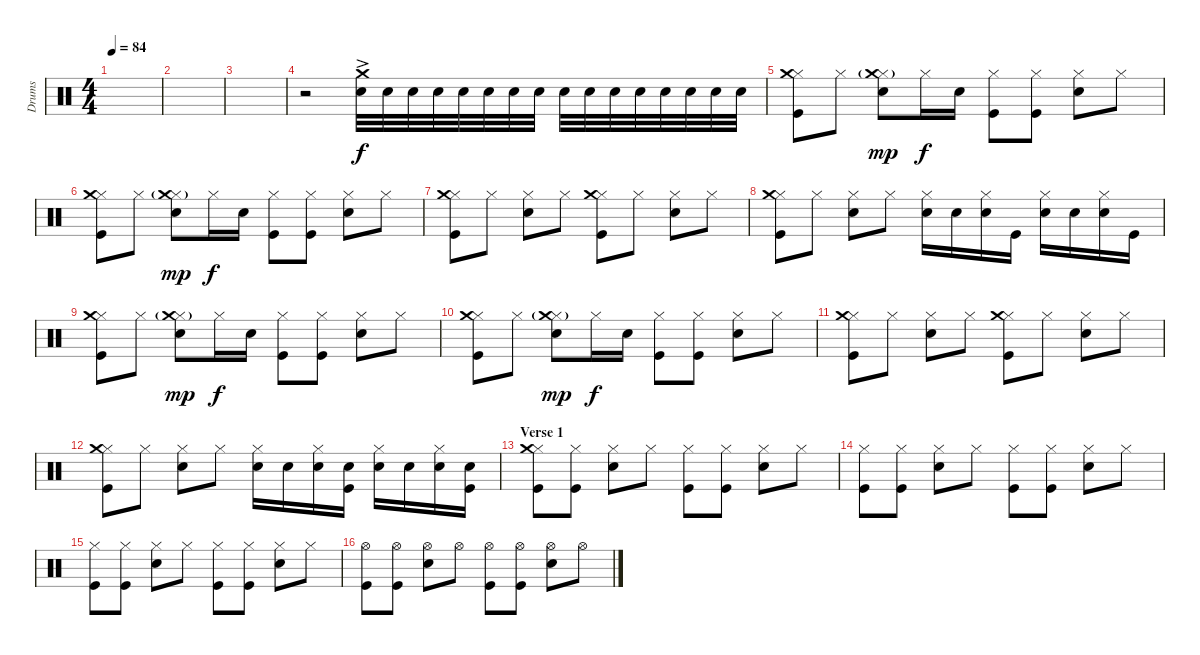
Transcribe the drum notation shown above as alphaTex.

\track ("Drums" "Drums") {instrument percussion}
\staff {score}
\articulation defaults
\ts (4 4)
\tempo 84
\clef neutral
\ks c
|
|
|
r.2 ("Crash medium (hit)"{ac} "Snare (hit) 2").32 "Snare (hit) 2".32{dy f} "Snare (hit) 2".32 "Snare (hit) 2".32 "Snare (hit) 2".32 "Snare (hit) 2".32 "Snare (hit) 2".32 "Snare (hit) 2".32 "Snare (hit) 2".32 "Snare (hit) 2".32 "Snare (hit) 2".32 "Snare (hit) 2".32 "Snare (hit) 2".32 "Snare (hit) 2".32 "Snare (hit) 2".32 "Snare (hit) 2".32 |
("Hi-Hat (closed)" "Crash medium (hit)" "Kick (hit)").8 "Hi-Hat (closed)".8 ("Hi-Hat (closed)" "Crash medium (hit)"{g} "Snare (hit) 2").8{dy mp} "Hi-Hat (closed)".16{dy f} "Snare (hit) 2".16 ("Hi-Hat (closed)" "Kick (hit)").8 ("Hi-Hat (closed)" "Kick (hit)").8 ("Hi-Hat (closed)" "Snare (hit) 2").8 "Hi-Hat (closed)".8 |
("Hi-Hat (closed)" "Crash medium (hit)" "Kick (hit)").8 "Hi-Hat (closed)".8 ("Hi-Hat (closed)" "Crash medium (hit)"{g} "Snare (hit) 2").8{dy mp} "Hi-Hat (closed)".16{dy f} "Snare (hit) 2".16 ("Hi-Hat (closed)" "Kick (hit)").8 ("Hi-Hat (closed)" "Kick (hit)").8 ("Hi-Hat (closed)" "Snare (hit) 2").8 "Hi-Hat (closed)".8 |
("Hi-Hat (closed)" "Crash medium (hit)" "Kick (hit)").8 "Hi-Hat (closed)".8 ("Hi-Hat (closed)" "Snare (hit) 2").8 "Hi-Hat (closed)".8 ("Hi-Hat (closed)" "Crash medium (hit)" "Kick (hit)").8 "Hi-Hat (closed)".8 ("Hi-Hat (closed)" "Snare (hit) 2").8 "Hi-Hat (closed)".8 |
("Hi-Hat (closed)" "Crash medium (hit)" "Kick (hit)").8 "Hi-Hat (closed)".8 ("Hi-Hat (closed)" "Snare (hit) 2").8 "Hi-Hat (closed)".8 ("Hi-Hat (closed)" "Snare (hit) 2").16 "Snare (hit) 2".16 ("Hi-Hat (closed)" "Snare (hit) 2").16 "Kick (hit)".16 ("Hi-Hat (closed)" "Snare (hit) 2").16 "Snare (hit) 2".16 ("Hi-Hat (closed)" "Snare (hit) 2").16 "Kick (hit)".16 |
("Hi-Hat (closed)" "Crash medium (hit)" "Kick (hit)").8 "Hi-Hat (closed)".8 ("Hi-Hat (closed)" "Crash medium (hit)"{g} "Snare (hit) 2").8{dy mp} "Hi-Hat (closed)".16{dy f} "Snare (hit) 2".16 ("Hi-Hat (closed)" "Kick (hit)").8 ("Hi-Hat (closed)" "Kick (hit)").8 ("Hi-Hat (closed)" "Snare (hit) 2").8 "Hi-Hat (closed)".8 |
("Hi-Hat (closed)" "Crash medium (hit)" "Kick (hit)").8 "Hi-Hat (closed)".8 ("Hi-Hat (closed)" "Crash medium (hit)"{g} "Snare (hit) 2").8{dy mp} "Hi-Hat (closed)".16{dy f} "Snare (hit) 2".16 ("Hi-Hat (closed)" "Kick (hit)").8 ("Hi-Hat (closed)" "Kick (hit)").8 ("Hi-Hat (closed)" "Snare (hit) 2").8 "Hi-Hat (closed)".8 |
("Hi-Hat (closed)" "Crash medium (hit)" "Kick (hit)").8 "Hi-Hat (closed)".8 ("Hi-Hat (closed)" "Snare (hit) 2").8 "Hi-Hat (closed)".8 ("Hi-Hat (closed)" "Crash medium (hit)" "Kick (hit)").8 "Hi-Hat (closed)".8 ("Hi-Hat (closed)" "Snare (hit) 2").8 "Hi-Hat (closed)".8 |
("Hi-Hat (closed)" "Crash medium (hit)" "Kick (hit)").8 "Hi-Hat (closed)".8 ("Hi-Hat (closed)" "Snare (hit) 2").8 "Hi-Hat (closed)".8 ("Hi-Hat (closed)" "Snare (hit) 2").16 "Snare (hit) 2".16 ("Hi-Hat (closed)" "Snare (hit) 2").16 ("Snare (hit) 2" "Kick (hit)").16 ("Hi-Hat (closed)" "Snare (hit) 2").16 "Snare (hit) 2".16 ("Hi-Hat (closed)" "Snare (hit) 2").16 ("Snare (hit) 2" "Kick (hit)").16 |
\section ("" "Verse 1")
("Hi-Hat (closed)" "Crash medium (hit)" "Kick (hit)").8 ("Hi-Hat (closed)" "Kick (hit)").8 ("Hi-Hat (closed)" "Snare (hit) 2").8 "Hi-Hat (closed)".8 ("Hi-Hat (closed)" "Kick (hit)").8 ("Hi-Hat (closed)" "Kick (hit)").8 ("Hi-Hat (closed)" "Snare (hit) 2").8 "Hi-Hat (closed)".8 |
("Hi-Hat (closed)" "Kick (hit)").8 ("Hi-Hat (closed)" "Kick (hit)").8 ("Hi-Hat (closed)" "Snare (hit) 2").8 "Hi-Hat (closed)".8 ("Hi-Hat (closed)" "Kick (hit)").8 ("Hi-Hat (closed)" "Kick (hit)").8 ("Hi-Hat (closed)" "Snare (hit) 2").8 "Hi-Hat (closed)".8 |
("Hi-Hat (closed)" "Kick (hit)").8 ("Hi-Hat (closed)" "Kick (hit)").8 ("Hi-Hat (closed)" "Snare (hit) 2").8 "Hi-Hat (closed)".8 ("Hi-Hat (closed)" "Kick (hit)").8 ("Hi-Hat (closed)" "Kick (hit)").8 ("Hi-Hat (closed)" "Snare (hit) 2").8 "Hi-Hat (closed)".8 |
("Hi-Hat (open)" "Kick (hit)").8 ("Hi-Hat (open)" "Kick (hit)").8 ("Hi-Hat (open)" "Snare (hit) 2").8 "Hi-Hat (open)".8 ("Hi-Hat (open)" "Kick (hit)").8 ("Hi-Hat (open)" "Kick (hit)").8 ("Hi-Hat (open)" "Snare (hit) 2").8 "Hi-Hat (open)".8
